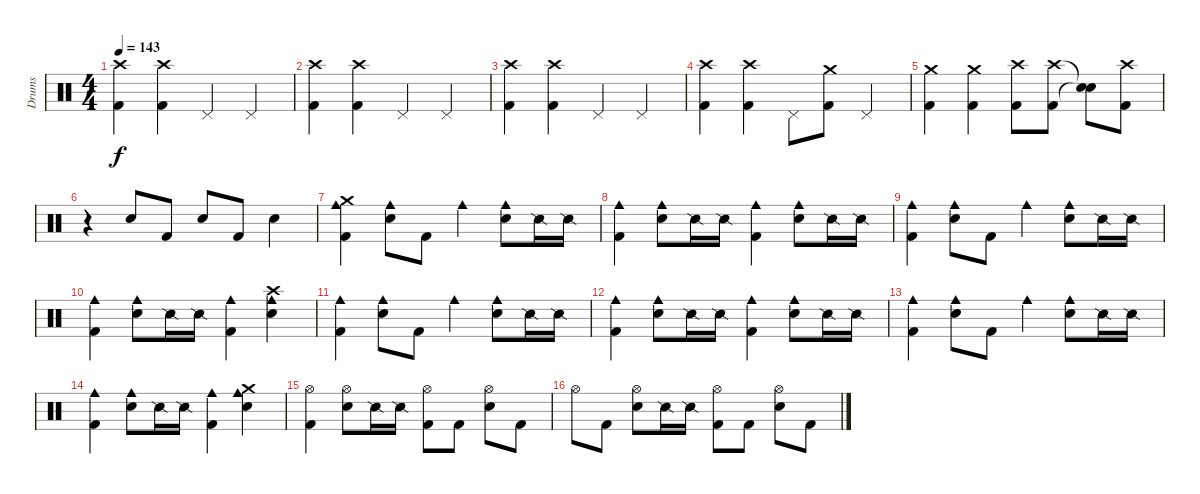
\track ("Drums" "Drums") {instrument percussion}
\staff {score}
\articulation defaults
\ts (4 4)
\tempo 143
\clef neutral
\ks c
("Crash high (hit)" "Kick (hit) 2").4{dy f} ("Crash high (hit)" "Kick (hit) 2").4 "Pedal Hi-Hat (hit)".4 "Pedal Hi-Hat (hit)".4 |
("Crash high (hit)" "Kick (hit) 2").4 ("Crash high (hit)" "Kick (hit) 2").4 "Pedal Hi-Hat (hit)".4 "Pedal Hi-Hat (hit)".4 |
("Crash high (hit)" "Kick (hit) 2").4 ("Crash high (hit)" "Kick (hit) 2").4 "Pedal Hi-Hat (hit)".4 "Pedal Hi-Hat (hit)".4 |
("Crash high (hit)" "Kick (hit) 2").4 ("Crash high (hit)" "Kick (hit) 2").4 "Pedal Hi-Hat (hit)".8 ("Crash medium (hit)" "Kick (hit) 2").8 "Pedal Hi-Hat (hit)".4 |
("Crash medium (hit)" "Kick (hit) 2").4 ("Crash medium (hit)" "Kick (hit) 2").4 ("Crash high (hit)" "Kick (hit) 2").8 ("Crash high (hit)" "Kick (hit) 2").8 ("Snare (hit)"{t} "Snare (hit)"{t}).8 ("Crash high (hit)" "Kick (hit) 2").8 |
r.4 "Metronome (bell)".8 "Kick (hit) 2".8 "Metronome (bell)".8 "Kick (hit) 2".8 "Metronome (bell)".4 |
("Cowbell medium (hit)" "Crash medium (hit)" "Kick (hit) 2").4 ("Cowbell medium (hit)" "Metronome (bell)").8 "Kick (hit) 2".8 "Cowbell medium (hit)".4 ("Cowbell medium (hit)" "Metronome (bell)").8 "Snare (side stick) 2".16 "Snare (side stick) 2".16 |
("Cowbell medium (hit)" "Kick (hit) 2").4 ("Cowbell medium (hit)" "Metronome (bell)").8 "Snare (side stick) 2".16 "Snare (side stick) 2".16 ("Cowbell medium (hit)" "Kick (hit) 2").4 ("Cowbell medium (hit)" "Metronome (bell)").8 "Snare (side stick) 2".16 "Snare (side stick) 2".16 |
("Cowbell medium (hit)" "Kick (hit) 2").4 ("Cowbell medium (hit)" "Metronome (bell)").8 "Kick (hit) 2".8 "Cowbell medium (hit)".4 ("Cowbell medium (hit)" "Metronome (bell)").8 "Snare (side stick) 2".16 "Snare (side stick) 2".16 |
("Cowbell medium (hit)" "Kick (hit) 2").4 ("Cowbell medium (hit)" "Metronome (bell)").8 "Snare (side stick) 2".16 "Snare (side stick) 2".16 ("Cowbell medium (hit)" "Kick (hit) 2").4 ("Cowbell medium (hit)" "Crash high (hit)" "Metronome (bell)").4 |
("Cowbell medium (hit)" "Kick (hit) 2").4 ("Cowbell medium (hit)" "Metronome (bell)").8 "Kick (hit) 2".8 "Cowbell medium (hit)".4 ("Cowbell medium (hit)" "Metronome (bell)").8 "Snare (side stick) 2".16 "Snare (side stick) 2".16 |
("Cowbell medium (hit)" "Kick (hit) 2").4 ("Cowbell medium (hit)" "Metronome (bell)").8 "Snare (side stick) 2".16 "Snare (side stick) 2".16 ("Cowbell medium (hit)" "Kick (hit) 2").4 ("Cowbell medium (hit)" "Metronome (bell)").8 "Snare (side stick) 2".16 "Snare (side stick) 2".16 |
("Cowbell medium (hit)" "Kick (hit) 2").4 ("Cowbell medium (hit)" "Metronome (bell)").8 "Kick (hit) 2".8 "Cowbell medium (hit)".4 ("Cowbell medium (hit)" "Metronome (bell)").8 "Snare (side stick) 2".16 "Snare (side stick) 2".16 |
("Cowbell medium (hit)" "Kick (hit) 2").4 ("Cowbell medium (hit)" "Metronome (bell)").8 "Snare (side stick) 2".16 "Snare (side stick) 2".16 ("Cowbell medium (hit)" "Kick (hit) 2").4 ("Cowbell medium (hit)" "Crash medium (hit)" "Metronome (bell)").4 |
("Hi-Hat (open)" "Kick (hit) 2").4 ("Hi-Hat (open)" "Metronome (bell)").8 "Snare (side stick) 2".16 "Snare (side stick) 2".16 ("Hi-Hat (open)" "Kick (hit) 2").8 "Kick (hit) 2".8 ("Hi-Hat (open)" "Metronome (bell)").8 "Kick (hit) 2".8 |
"Hi-Hat (open)".8 "Kick (hit) 2".8 ("Hi-Hat (open)" "Metronome (bell)").8 "Snare (side stick) 2".16 "Snare (side stick) 2".16 ("Hi-Hat (open)" "Kick (hit) 2").8 "Kick (hit) 2".8 ("Hi-Hat (open)" "Metronome (bell)").8 "Kick (hit) 2".8
